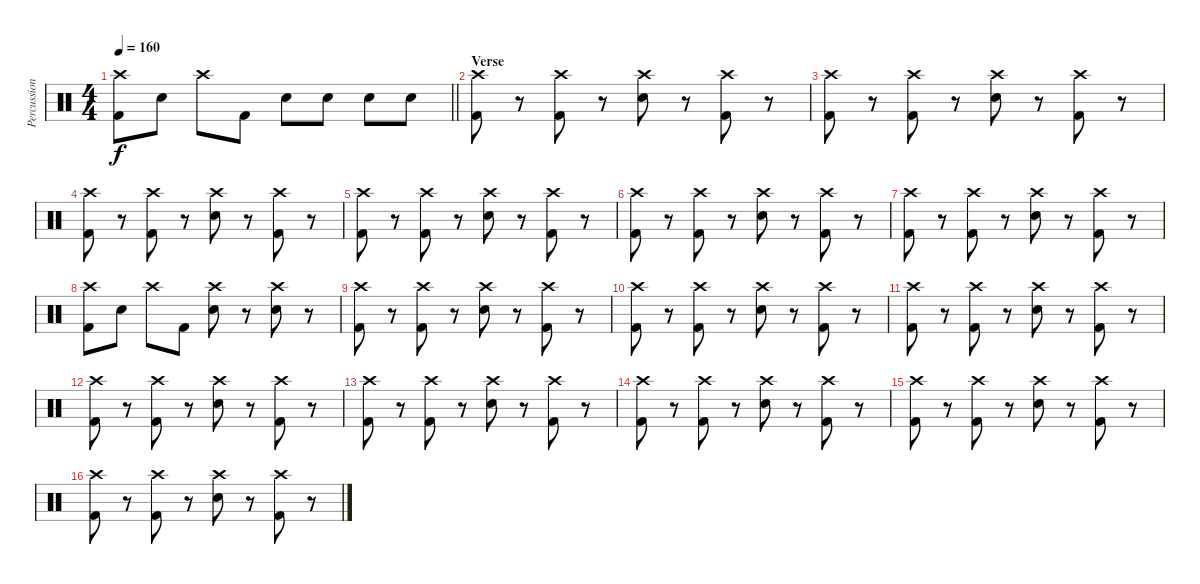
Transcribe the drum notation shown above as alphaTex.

\track ("Percussion" "Percussion") {instrument percussion}
\staff {score}
\articulation defaults
\ts (4 4)
\tempo 160
\clef neutral
\barLineRight lightlight
\ks c
("Crash high (hit)" "Kick (hit) 2").8{dy f} "Electric Snare (hit)".8 "Crash high (hit)".8 "Kick (hit) 2".8 "Electric Snare (hit)".8 "Electric Snare (hit)".8 "Electric Snare (hit)".8 "Electric Snare (hit)".8 |
\section ("" "Verse")
("Crash high (hit)" "Kick (hit) 2").8 r.8 ("Crash high (hit)" "Kick (hit) 2").8 r.8 ("Crash high (hit)" "Electric Snare (hit)").8 r.8 ("Crash high (hit)" "Kick (hit) 2").8 r.8 |
("Crash high (hit)" "Kick (hit) 2").8 r.8 ("Crash high (hit)" "Kick (hit) 2").8 r.8 ("Crash high (hit)" "Electric Snare (hit)").8 r.8 ("Crash high (hit)" "Kick (hit) 2").8 r.8 |
("Crash high (hit)" "Kick (hit) 2").8 r.8 ("Crash high (hit)" "Kick (hit) 2").8 r.8 ("Crash high (hit)" "Electric Snare (hit)").8 r.8 ("Crash high (hit)" "Kick (hit) 2").8 r.8 |
("Crash high (hit)" "Kick (hit) 2").8 r.8 ("Crash high (hit)" "Kick (hit) 2").8 r.8 ("Crash high (hit)" "Electric Snare (hit)").8 r.8 ("Crash high (hit)" "Kick (hit) 2").8 r.8 |
("Crash high (hit)" "Kick (hit) 2").8 r.8 ("Crash high (hit)" "Kick (hit) 2").8 r.8 ("Crash high (hit)" "Electric Snare (hit)").8 r.8 ("Crash high (hit)" "Kick (hit) 2").8 r.8 |
("Crash high (hit)" "Kick (hit) 2").8 r.8 ("Crash high (hit)" "Kick (hit) 2").8 r.8 ("Crash high (hit)" "Electric Snare (hit)").8 r.8 ("Crash high (hit)" "Kick (hit) 2").8 r.8 |
("Crash high (hit)" "Kick (hit) 2").8 "Electric Snare (hit)".8 "Crash high (hit)".8 "Kick (hit) 2".8 ("Crash high (hit)" "Electric Snare (hit)").8 r.8 ("Crash high (hit)" "Electric Snare (hit)").8 r.8 |
("Crash high (hit)" "Kick (hit) 2").8 r.8 ("Crash high (hit)" "Kick (hit) 2").8 r.8 ("Crash high (hit)" "Electric Snare (hit)").8 r.8 ("Crash high (hit)" "Kick (hit) 2").8 r.8 |
("Crash high (hit)" "Kick (hit) 2").8 r.8 ("Crash high (hit)" "Kick (hit) 2").8 r.8 ("Crash high (hit)" "Electric Snare (hit)").8 r.8 ("Crash high (hit)" "Kick (hit) 2").8 r.8 |
("Crash high (hit)" "Kick (hit) 2").8 r.8 ("Crash high (hit)" "Kick (hit) 2").8 r.8 ("Crash high (hit)" "Electric Snare (hit)").8 r.8 ("Crash high (hit)" "Kick (hit) 2").8 r.8 |
("Crash high (hit)" "Kick (hit) 2").8 r.8 ("Crash high (hit)" "Kick (hit) 2").8 r.8 ("Crash high (hit)" "Electric Snare (hit)").8 r.8 ("Crash high (hit)" "Kick (hit) 2").8 r.8 |
("Crash high (hit)" "Kick (hit) 2").8 r.8 ("Crash high (hit)" "Kick (hit) 2").8 r.8 ("Crash high (hit)" "Electric Snare (hit)").8 r.8 ("Crash high (hit)" "Kick (hit) 2").8 r.8 |
("Crash high (hit)" "Kick (hit) 2").8 r.8 ("Crash high (hit)" "Kick (hit) 2").8 r.8 ("Crash high (hit)" "Electric Snare (hit)").8 r.8 ("Crash high (hit)" "Kick (hit) 2").8 r.8 |
("Crash high (hit)" "Kick (hit) 2").8 r.8 ("Crash high (hit)" "Kick (hit) 2").8 r.8 ("Crash high (hit)" "Electric Snare (hit)").8 r.8 ("Crash high (hit)" "Kick (hit) 2").8 r.8 |
("Crash high (hit)" "Kick (hit) 2").8 r.8 ("Crash high (hit)" "Kick (hit) 2").8 r.8 ("Crash high (hit)" "Electric Snare (hit)").8 r.8 ("Crash high (hit)" "Kick (hit) 2").8 r.8
